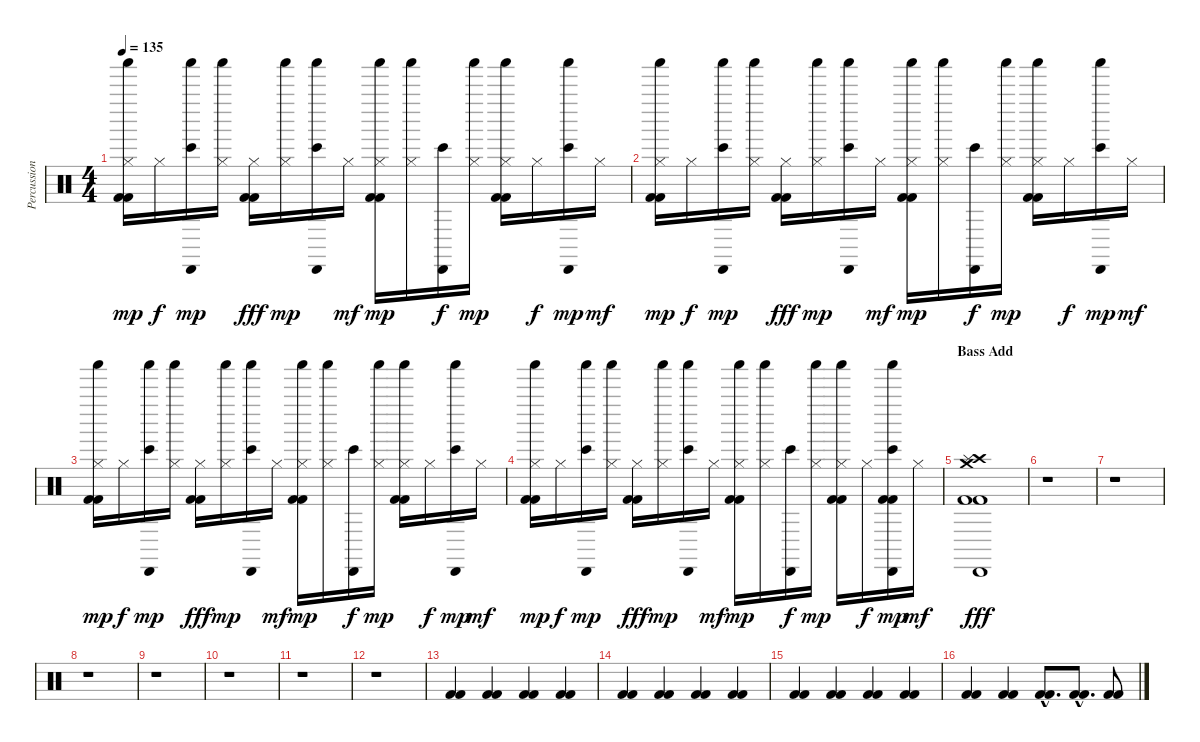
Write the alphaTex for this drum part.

\track ("Percussion" "Percussion") {instrument percussion}
\staff {score}
\articulation defaults
\ts (4 4)
\tempo 135
\clef neutral
\ks c
("Hi-Hat (closed)" "Kick (hit) 2" "Kick (hit) 2" "Shaker (hit)").16{dy mp} "Hi-Hat (closed)".16{dy f} ("Cabasa (hit)" "Bongo High (hit)" "Shaker (hit)").16{dy mp} ("Hi-Hat (closed)" "Shaker (hit)").16 ("Hi-Hat (closed)" "Kick (hit) 2" "Kick (hit) 2").16{dy fff} ("Hi-Hat (closed)" "Shaker (hit)").16{dy mp} ("Cabasa (hit)" "Bongo High (hit)" "Shaker (hit)").16 "Hi-Hat (closed)".16{dy mf} ("Hi-Hat (closed)" "Kick (hit) 2" "Kick (hit) 2" "Shaker (hit)").16{dy mp} ("Hi-Hat (closed)" "Shaker (hit)").16 ("Cabasa (hit)" "Bongo High (hit)").16{dy f} ("Hi-Hat (closed)" "Shaker (hit)").16{dy mp} ("Hi-Hat (closed)" "Kick (hit) 2" "Kick (hit) 2" "Shaker (hit)").16 "Hi-Hat (closed)".16{dy f} ("Cabasa (hit)" "Bongo High (hit)" "Shaker (hit)").16{dy mp} "Hi-Hat (closed)".16{dy mf} |
("Hi-Hat (closed)" "Kick (hit) 2" "Kick (hit) 2" "Shaker (hit)").16{dy mp} "Hi-Hat (closed)".16{dy f} ("Cabasa (hit)" "Bongo High (hit)" "Shaker (hit)").16{dy mp} ("Hi-Hat (closed)" "Shaker (hit)").16 ("Hi-Hat (closed)" "Kick (hit) 2" "Kick (hit) 2").16{dy fff} ("Hi-Hat (closed)" "Shaker (hit)").16{dy mp} ("Cabasa (hit)" "Bongo High (hit)" "Shaker (hit)").16 "Hi-Hat (closed)".16{dy mf} ("Hi-Hat (closed)" "Kick (hit) 2" "Kick (hit) 2" "Shaker (hit)").16{dy mp} ("Hi-Hat (closed)" "Shaker (hit)").16 ("Cabasa (hit)" "Bongo High (hit)").16{dy f} ("Hi-Hat (closed)" "Shaker (hit)").16{dy mp} ("Hi-Hat (closed)" "Kick (hit) 2" "Kick (hit) 2" "Shaker (hit)").16 "Hi-Hat (closed)".16{dy f} ("Cabasa (hit)" "Bongo High (hit)" "Shaker (hit)").16{dy mp} "Hi-Hat (closed)".16{dy mf} |
("Hi-Hat (closed)" "Kick (hit) 2" "Kick (hit) 2" "Shaker (hit)").16{dy mp} "Hi-Hat (closed)".16{dy f} ("Cabasa (hit)" "Bongo High (hit)" "Shaker (hit)").16{dy mp} ("Hi-Hat (closed)" "Shaker (hit)").16 ("Hi-Hat (closed)" "Kick (hit) 2" "Kick (hit) 2").16{dy fff} ("Hi-Hat (closed)" "Shaker (hit)").16{dy mp} ("Cabasa (hit)" "Bongo High (hit)" "Shaker (hit)").16 "Hi-Hat (closed)".16{dy mf} ("Hi-Hat (closed)" "Kick (hit) 2" "Kick (hit) 2" "Shaker (hit)").16{dy mp} ("Hi-Hat (closed)" "Shaker (hit)").16 ("Cabasa (hit)" "Bongo High (hit)").16{dy f} ("Hi-Hat (closed)" "Shaker (hit)").16{dy mp} ("Hi-Hat (closed)" "Kick (hit) 2" "Kick (hit) 2" "Shaker (hit)").16 "Hi-Hat (closed)".16{dy f} ("Cabasa (hit)" "Bongo High (hit)" "Shaker (hit)").16{dy mp} "Hi-Hat (closed)".16{dy mf} |
("Hi-Hat (closed)" "Kick (hit) 2" "Kick (hit) 2" "Shaker (hit)").16{dy mp} "Hi-Hat (closed)".16{dy f} ("Cabasa (hit)" "Bongo High (hit)" "Shaker (hit)").16{dy mp} ("Hi-Hat (closed)" "Shaker (hit)").16 ("Hi-Hat (closed)" "Kick (hit) 2" "Kick (hit) 2").16{dy fff} ("Hi-Hat (closed)" "Shaker (hit)").16{dy mp} ("Cabasa (hit)" "Bongo High (hit)" "Shaker (hit)").16 "Hi-Hat (closed)".16{dy mf} ("Hi-Hat (closed)" "Kick (hit) 2" "Kick (hit) 2" "Shaker (hit)").16{dy mp} ("Hi-Hat (closed)" "Shaker (hit)").16 ("Cabasa (hit)" "Bongo High (hit)").16{dy f} ("Hi-Hat (closed)" "Shaker (hit)").16{dy mp} ("Hi-Hat (closed)" "Kick (hit) 2" "Kick (hit) 2" "Shaker (hit)").16 "Hi-Hat (closed)".16{dy f} ("Cabasa (hit)" "Bongo High (hit)" "Kick (hit) 2" "Kick (hit) 2" "Shaker (hit)").16{dy mp} "Hi-Hat (closed)".16{dy mf} |
\section ("" "Bass Add")
("Crash high (hit)" "Crash medium (hit)" "Cabasa (hit)" "Kick (hit) 2" "Kick (hit) 2" "Splash (hit)").1{dy fff} |
r.1 |
r.1 |
r.1 |
r.1 |
r.1 |
r.1 |
r.1 |
("Kick (hit) 2" "Kick (hit) 2").4 ("Kick (hit) 2" "Kick (hit) 2").4 ("Kick (hit) 2" "Kick (hit) 2").4 ("Kick (hit) 2" "Kick (hit) 2").4 |
("Kick (hit) 2" "Kick (hit) 2").4 ("Kick (hit) 2" "Kick (hit) 2").4 ("Kick (hit) 2" "Kick (hit) 2").4 ("Kick (hit) 2" "Kick (hit) 2").4 |
("Kick (hit) 2" "Kick (hit) 2").4 ("Kick (hit) 2" "Kick (hit) 2").4 ("Kick (hit) 2" "Kick (hit) 2").4 ("Kick (hit) 2" "Kick (hit) 2").4 |
("Kick (hit) 2" "Kick (hit) 2").4 ("Kick (hit) 2" "Kick (hit) 2").4 ("Kick (hit) 2"{hac} "Kick (hit) 2"{hac}).8{d} ("Kick (hit) 2"{hac} "Kick (hit) 2"{hac}).8{d} ("Kick (hit) 2" "Kick (hit) 2").8
